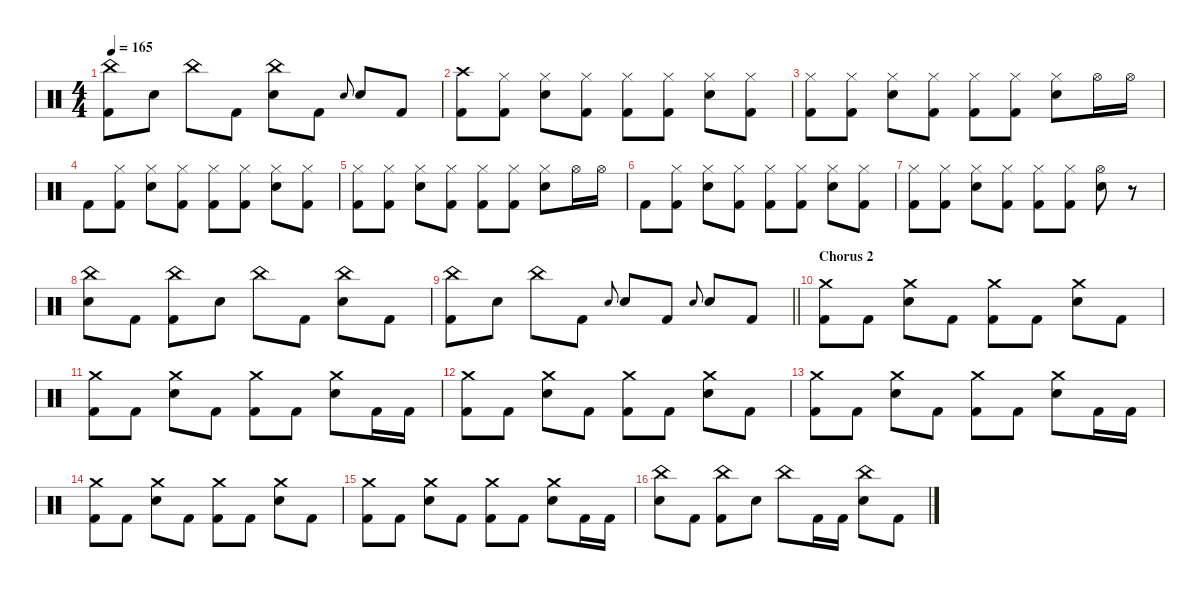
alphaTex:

\defaultSystemsLayout 4
\hideDynamics
\bracketExtendMode nobrackets
\singleTrackTrackNamePolicy hidden
\multiTrackTrackNamePolicy hidden
\firstSystemTrackNameMode fullname
\firstSystemTrackNameOrientation horizontal
\otherSystemsTrackNameOrientation horizontal
\track ("Percussions" "drm.") {instrument percussion}
\staff {score}
\articulation defaults
\ts (4 4)
\tempo 165
\clef neutral
\ks c
("China (hit)" "Kick (hit) 2").8{dy f beam Down} "Snare (hit) 2".8{beam Down} "China (hit)".8{beam Down} "Kick (hit) 2".8{beam Down} ("China (hit)" "Snare (hit) 2").8{beam Down} "Kick (hit) 2".8{beam Down} "Electric Snare (hit)".8{gr onbeat dy mf beam Up} "Snare (hit) 2".8{dy f beam Up} "Kick (hit) 2".8{beam Up} |
("Crash high (hit)" "Kick (hit) 2").8{beam Down} ("Hi-Hat (closed)" "Kick (hit) 2").8{beam Down} ("Hi-Hat (closed)" "Snare (hit) 2").8{beam Down} ("Hi-Hat (closed)" "Kick (hit) 2").8{beam Down} ("Hi-Hat (closed)" "Kick (hit) 2").8{beam Down} ("Hi-Hat (closed)" "Kick (hit) 2").8{beam Down} ("Hi-Hat (closed)" "Snare (hit) 2").8{beam Down} ("Hi-Hat (closed)" "Kick (hit) 2").8{beam Down} |
("Hi-Hat (closed)" "Kick (hit) 2").8{beam Down} ("Hi-Hat (closed)" "Kick (hit) 2").8{beam Down} ("Hi-Hat (closed)" "Snare (hit) 2").8{beam Down} ("Hi-Hat (closed)" "Kick (hit) 2").8{beam Down} ("Hi-Hat (closed)" "Kick (hit) 2").8{beam Down} ("Hi-Hat (closed)" "Kick (hit) 2").8{beam Down} ("Hi-Hat (closed)" "Snare (hit) 2").8{beam Down} "Hi-Hat (open)".16{beam Down} "Hi-Hat (open)".16{beam Down} |
"Kick (hit) 2".8{beam Down} ("Hi-Hat (closed)" "Kick (hit) 2").8{beam Down} ("Hi-Hat (closed)" "Snare (hit) 2").8{beam Down} ("Hi-Hat (closed)" "Kick (hit) 2").8{beam Down} ("Hi-Hat (closed)" "Kick (hit) 2").8{beam Down} ("Hi-Hat (closed)" "Kick (hit) 2").8{beam Down} ("Hi-Hat (closed)" "Snare (hit) 2").8{beam Down} ("Hi-Hat (closed)" "Kick (hit) 2").8{beam Down} |
("Hi-Hat (closed)" "Kick (hit) 2").8{beam Down} ("Hi-Hat (closed)" "Kick (hit) 2").8{beam Down} ("Hi-Hat (closed)" "Snare (hit) 2").8{beam Down} ("Hi-Hat (closed)" "Kick (hit) 2").8{beam Down} ("Hi-Hat (closed)" "Kick (hit) 2").8{beam Down} ("Hi-Hat (closed)" "Kick (hit) 2").8{beam Down} ("Hi-Hat (closed)" "Snare (hit) 2").8{beam Down} "Hi-Hat (open)".16{beam Down} "Hi-Hat (open)".16{beam Down} |
"Kick (hit) 2".8{beam Down} ("Hi-Hat (closed)" "Kick (hit) 2").8{beam Down} ("Hi-Hat (closed)" "Snare (hit) 2").8{beam Down} ("Hi-Hat (closed)" "Kick (hit) 2").8{beam Down} ("Hi-Hat (closed)" "Kick (hit) 2").8{beam Down} ("Hi-Hat (closed)" "Kick (hit) 2").8{beam Down} ("Hi-Hat (closed)" "Snare (hit) 2").8{beam Down} ("Hi-Hat (closed)" "Kick (hit) 2").8{beam Down} |
("Hi-Hat (closed)" "Kick (hit) 2").8{beam Down} ("Hi-Hat (closed)" "Kick (hit) 2").8{beam Down} ("Hi-Hat (closed)" "Snare (hit) 2").8{beam Down} ("Hi-Hat (closed)" "Kick (hit) 2").8{beam Down} ("Hi-Hat (closed)" "Kick (hit) 2").8{beam Down} ("Hi-Hat (closed)" "Kick (hit) 2").8{beam Down} ("Hi-Hat (open)" "Snare (hit) 2").8{beam Down} r.8{beam Down} |
("China (hit)" "Snare (hit) 2").8{beam Down} "Kick (hit) 2".8{beam Down} ("China (hit)" "Kick (hit) 2").8{beam Down} "Snare (hit) 2".8{beam Down} "China (hit)".8{beam Down} "Kick (hit) 2".8{beam Down} ("China (hit)" "Snare (hit) 2").8{beam Down} "Kick (hit) 2".8{beam Down} |
\barLineRight lightlight
("China (hit)" "Kick (hit) 2").8{beam Down} "Snare (hit) 2".8{beam Down} "China (hit)".8{beam Down} "Kick (hit) 2".8{beam Down} "Electric Snare (hit)".8{gr onbeat dy mf beam Up} "Snare (hit) 2".8{dy f beam Up} "Kick (hit) 2".8{beam Up} "Electric Snare (hit)".8{gr onbeat dy mf beam Up} "Snare (hit) 2".8{dy f beam Up} "Kick (hit) 2".8{beam Up} |
\section ("" "Chorus 2")
("Crash medium (hit)" "Kick (hit) 2").8{beam Down} "Kick (hit) 2".8{beam Down} ("Crash medium (hit)" "Snare (hit) 2").8{beam Down} "Kick (hit) 2".8{beam Down} ("Crash medium (hit)" "Kick (hit) 2").8{beam Down} "Kick (hit) 2".8{beam Down} ("Crash medium (hit)" "Snare (hit) 2").8{beam Down} "Kick (hit) 2".8{beam Down} |
("Crash medium (hit)" "Kick (hit) 2").8{beam Down} "Kick (hit) 2".8{beam Down} ("Crash medium (hit)" "Snare (hit) 2").8{beam Down} "Kick (hit) 2".8{beam Down} ("Crash medium (hit)" "Kick (hit) 2").8{beam Down} "Kick (hit) 2".8{beam Down} ("Crash medium (hit)" "Snare (hit) 2").8{beam Down} "Kick (hit) 2".16{beam Down} "Kick (hit) 2".16{beam Down} |
("Crash medium (hit)" "Kick (hit) 2").8{beam Down} "Kick (hit) 2".8{beam Down} ("Crash medium (hit)" "Snare (hit) 2").8{beam Down} "Kick (hit) 2".8{beam Down} ("Crash medium (hit)" "Kick (hit) 2").8{beam Down} "Kick (hit) 2".8{beam Down} ("Crash medium (hit)" "Snare (hit) 2").8{beam Down} "Kick (hit) 2".8{beam Down} |
("Crash medium (hit)" "Kick (hit) 2").8{beam Down} "Kick (hit) 2".8{beam Down} ("Crash medium (hit)" "Snare (hit) 2").8{beam Down} "Kick (hit) 2".8{beam Down} ("Crash medium (hit)" "Kick (hit) 2").8{beam Down} "Kick (hit) 2".8{beam Down} ("Crash medium (hit)" "Snare (hit) 2").8{beam Down} "Kick (hit) 2".16{beam Down} "Kick (hit) 2".16{beam Down} |
("Crash medium (hit)" "Kick (hit) 2").8{beam Down} "Kick (hit) 2".8{beam Down} ("Crash medium (hit)" "Snare (hit) 2").8{beam Down} "Kick (hit) 2".8{beam Down} ("Crash medium (hit)" "Kick (hit) 2").8{beam Down} "Kick (hit) 2".8{beam Down} ("Crash medium (hit)" "Snare (hit) 2").8{beam Down} "Kick (hit) 2".8{beam Down} |
("Crash medium (hit)" "Kick (hit) 2").8{beam Down} "Kick (hit) 2".8{beam Down} ("Crash medium (hit)" "Snare (hit) 2").8{beam Down} "Kick (hit) 2".8{beam Down} ("Crash medium (hit)" "Kick (hit) 2").8{beam Down} "Kick (hit) 2".8{beam Down} ("Crash medium (hit)" "Snare (hit) 2").8{beam Down} "Kick (hit) 2".16{beam Down} "Kick (hit) 2".16{beam Down} |
("China (hit)" "Snare (hit) 2").8{beam Down} "Kick (hit) 2".8{beam Down} ("China (hit)" "Kick (hit) 2").8{beam Down} "Snare (hit) 2".8{beam Down} "China (hit)".8{beam Down} "Kick (hit) 2".16{beam Down} "Kick (hit) 2".16{beam Down} ("China (hit)" "Snare (hit) 2").8{beam Down} "Kick (hit) 2".8{beam Down}
